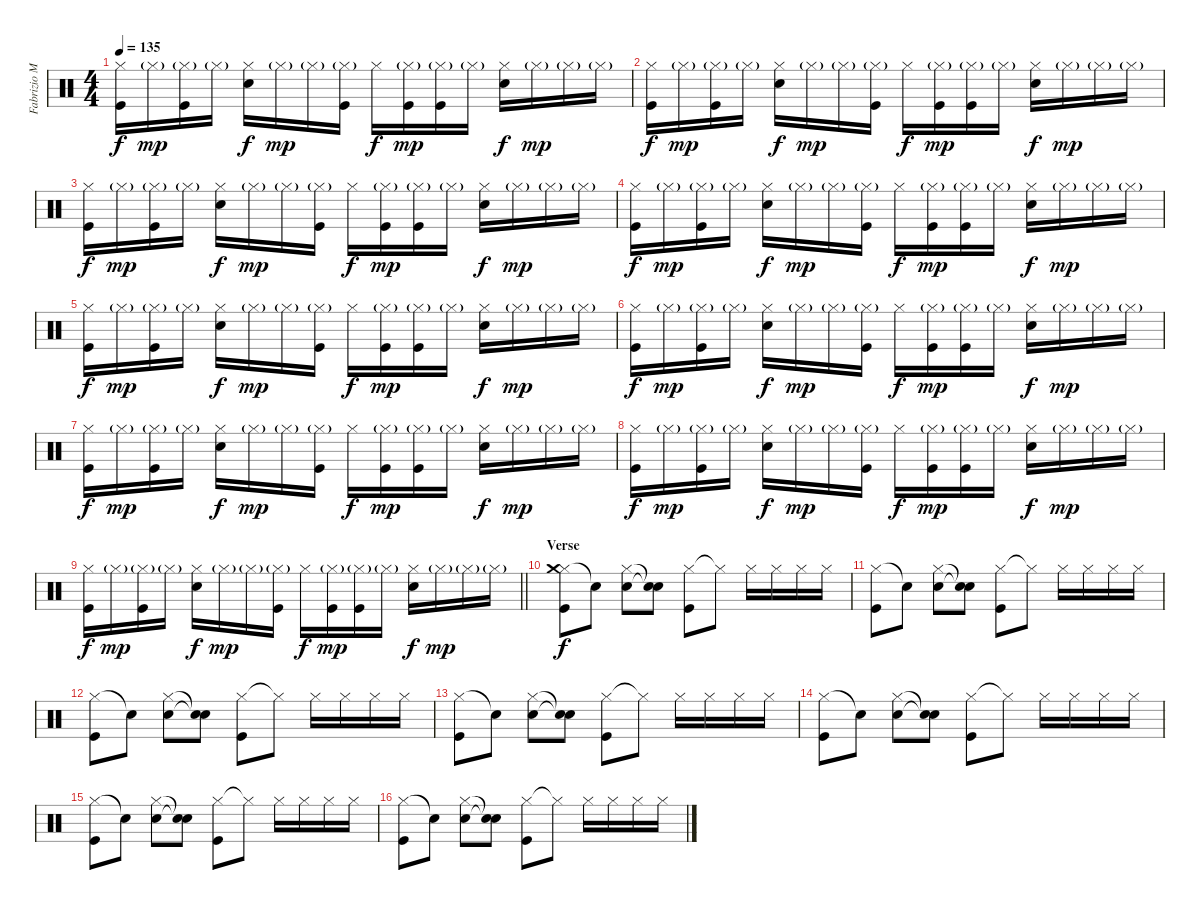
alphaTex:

\track ("Fabrizio Moretti" "Fabrizio M") {instrument percussion}
\staff {score}
\articulation defaults
\ts (4 4)
\tempo 135
\clef neutral
\ks c
("Hi-Hat (closed)" "Kick (hit)").16{dy f} "Hi-Hat (closed)"{g}.16{dy mp} ("Hi-Hat (closed)"{g} "Kick (hit)").16 "Hi-Hat (closed)"{g}.16 ("Hi-Hat (closed)" "Electric Snare (hit)").16{dy f} "Hi-Hat (closed)"{g}.16{dy mp} "Hi-Hat (closed)"{g}.16 ("Hi-Hat (closed)"{g} "Kick (hit)").16 "Hi-Hat (closed)".16{dy f} ("Hi-Hat (closed)"{g} "Kick (hit)").16{dy mp} ("Hi-Hat (closed)"{g} "Kick (hit)").16 "Hi-Hat (closed)"{g}.16 ("Hi-Hat (closed)" "Electric Snare (hit)").16{dy f} "Hi-Hat (closed)"{g}.16{dy mp} "Hi-Hat (closed)"{g}.16 "Hi-Hat (closed)"{g}.16 |
("Hi-Hat (closed)" "Kick (hit)").16{dy f} "Hi-Hat (closed)"{g}.16{dy mp} ("Hi-Hat (closed)"{g} "Kick (hit)").16 "Hi-Hat (closed)"{g}.16 ("Hi-Hat (closed)" "Electric Snare (hit)").16{dy f} "Hi-Hat (closed)"{g}.16{dy mp} "Hi-Hat (closed)"{g}.16 ("Hi-Hat (closed)"{g} "Kick (hit)").16 "Hi-Hat (closed)".16{dy f} ("Hi-Hat (closed)"{g} "Kick (hit)").16{dy mp} ("Hi-Hat (closed)"{g} "Kick (hit)").16 "Hi-Hat (closed)"{g}.16 ("Hi-Hat (closed)" "Electric Snare (hit)").16{dy f} "Hi-Hat (closed)"{g}.16{dy mp} "Hi-Hat (closed)"{g}.16 "Hi-Hat (closed)"{g}.16 |
("Hi-Hat (closed)" "Kick (hit)").16{dy f} "Hi-Hat (closed)"{g}.16{dy mp} ("Hi-Hat (closed)"{g} "Kick (hit)").16 "Hi-Hat (closed)"{g}.16 ("Hi-Hat (closed)" "Electric Snare (hit)").16{dy f} "Hi-Hat (closed)"{g}.16{dy mp} "Hi-Hat (closed)"{g}.16 ("Hi-Hat (closed)"{g} "Kick (hit)").16 "Hi-Hat (closed)".16{dy f} ("Hi-Hat (closed)"{g} "Kick (hit)").16{dy mp} ("Hi-Hat (closed)"{g} "Kick (hit)").16 "Hi-Hat (closed)"{g}.16 ("Hi-Hat (closed)" "Electric Snare (hit)").16{dy f} "Hi-Hat (closed)"{g}.16{dy mp} "Hi-Hat (closed)"{g}.16 "Hi-Hat (closed)"{g}.16 |
("Hi-Hat (closed)" "Kick (hit)").16{dy f} "Hi-Hat (closed)"{g}.16{dy mp} ("Hi-Hat (closed)"{g} "Kick (hit)").16 "Hi-Hat (closed)"{g}.16 ("Hi-Hat (closed)" "Electric Snare (hit)").16{dy f} "Hi-Hat (closed)"{g}.16{dy mp} "Hi-Hat (closed)"{g}.16 ("Hi-Hat (closed)"{g} "Kick (hit)").16 "Hi-Hat (closed)".16{dy f} ("Hi-Hat (closed)"{g} "Kick (hit)").16{dy mp} ("Hi-Hat (closed)"{g} "Kick (hit)").16 "Hi-Hat (closed)"{g}.16 ("Hi-Hat (closed)" "Electric Snare (hit)").16{dy f} "Hi-Hat (closed)"{g}.16{dy mp} "Hi-Hat (closed)"{g}.16 "Hi-Hat (closed)"{g}.16 |
("Hi-Hat (closed)" "Kick (hit)").16{dy f} "Hi-Hat (closed)"{g}.16{dy mp} ("Hi-Hat (closed)"{g} "Kick (hit)").16 "Hi-Hat (closed)"{g}.16 ("Hi-Hat (closed)" "Electric Snare (hit)").16{dy f} "Hi-Hat (closed)"{g}.16{dy mp} "Hi-Hat (closed)"{g}.16 ("Hi-Hat (closed)"{g} "Kick (hit)").16 "Hi-Hat (closed)".16{dy f} ("Hi-Hat (closed)"{g} "Kick (hit)").16{dy mp} ("Hi-Hat (closed)"{g} "Kick (hit)").16 "Hi-Hat (closed)"{g}.16 ("Hi-Hat (closed)" "Electric Snare (hit)").16{dy f} "Hi-Hat (closed)"{g}.16{dy mp} "Hi-Hat (closed)"{g}.16 "Hi-Hat (closed)"{g}.16 |
("Hi-Hat (closed)" "Kick (hit)").16{dy f} "Hi-Hat (closed)"{g}.16{dy mp} ("Hi-Hat (closed)"{g} "Kick (hit)").16 "Hi-Hat (closed)"{g}.16 ("Hi-Hat (closed)" "Electric Snare (hit)").16{dy f} "Hi-Hat (closed)"{g}.16{dy mp} "Hi-Hat (closed)"{g}.16 ("Hi-Hat (closed)"{g} "Kick (hit)").16 "Hi-Hat (closed)".16{dy f} ("Hi-Hat (closed)"{g} "Kick (hit)").16{dy mp} ("Hi-Hat (closed)"{g} "Kick (hit)").16 "Hi-Hat (closed)"{g}.16 ("Hi-Hat (closed)" "Electric Snare (hit)").16{dy f} "Hi-Hat (closed)"{g}.16{dy mp} "Hi-Hat (closed)"{g}.16 "Hi-Hat (closed)"{g}.16 |
("Hi-Hat (closed)" "Kick (hit)").16{dy f} "Hi-Hat (closed)"{g}.16{dy mp} ("Hi-Hat (closed)"{g} "Kick (hit)").16 "Hi-Hat (closed)"{g}.16 ("Hi-Hat (closed)" "Electric Snare (hit)").16{dy f} "Hi-Hat (closed)"{g}.16{dy mp} "Hi-Hat (closed)"{g}.16 ("Hi-Hat (closed)"{g} "Kick (hit)").16 "Hi-Hat (closed)".16{dy f} ("Hi-Hat (closed)"{g} "Kick (hit)").16{dy mp} ("Hi-Hat (closed)"{g} "Kick (hit)").16 "Hi-Hat (closed)"{g}.16 ("Hi-Hat (closed)" "Electric Snare (hit)").16{dy f} "Hi-Hat (closed)"{g}.16{dy mp} "Hi-Hat (closed)"{g}.16 "Hi-Hat (closed)"{g}.16 |
("Hi-Hat (closed)" "Kick (hit)").16{dy f} "Hi-Hat (closed)"{g}.16{dy mp} ("Hi-Hat (closed)"{g} "Kick (hit)").16 "Hi-Hat (closed)"{g}.16 ("Hi-Hat (closed)" "Electric Snare (hit)").16{dy f} "Hi-Hat (closed)"{g}.16{dy mp} "Hi-Hat (closed)"{g}.16 ("Hi-Hat (closed)"{g} "Kick (hit)").16 "Hi-Hat (closed)".16{dy f} ("Hi-Hat (closed)"{g} "Kick (hit)").16{dy mp} ("Hi-Hat (closed)"{g} "Kick (hit)").16 "Hi-Hat (closed)"{g}.16 ("Hi-Hat (closed)" "Electric Snare (hit)").16{dy f} "Hi-Hat (closed)"{g}.16{dy mp} "Hi-Hat (closed)"{g}.16 "Hi-Hat (closed)"{g}.16 |
\barLineRight lightlight
("Hi-Hat (closed)" "Kick (hit)").16{dy f} "Hi-Hat (closed)"{g}.16{dy mp} ("Hi-Hat (closed)"{g} "Kick (hit)").16 "Hi-Hat (closed)"{g}.16 ("Hi-Hat (closed)" "Electric Snare (hit)").16{dy f} "Hi-Hat (closed)"{g}.16{dy mp} "Hi-Hat (closed)"{g}.16 ("Hi-Hat (closed)"{g} "Kick (hit)").16 "Hi-Hat (closed)".16{dy f} ("Hi-Hat (closed)"{g} "Kick (hit)").16{dy mp} ("Hi-Hat (closed)"{g} "Kick (hit)").16 "Hi-Hat (closed)"{g}.16 ("Hi-Hat (closed)" "Electric Snare (hit)").16{dy f} "Hi-Hat (closed)"{g}.16{dy mp} "Hi-Hat (closed)"{g}.16 "Hi-Hat (closed)"{g}.16 |
\section ("" "Verse")
("Hi-Hat (closed)" "Crash medium (hit)" "Kick (hit)").8{dy f} "Snare (hit)"{t}.8 ("Hi-Hat (closed)" "Electric Snare (hit)").8 ("Snare (hit)"{t} "Snare (hit)"{t}).8 ("Hi-Hat (closed)" "Kick (hit)").8 "Hi-Hat (closed)"{t}.8 "Hi-Hat (closed)".16 "Hi-Hat (closed)".16 "Hi-Hat (closed)".16 "Hi-Hat (closed)".16 |
("Hi-Hat (closed)" "Kick (hit)").8 "Snare (hit)"{t}.8 ("Hi-Hat (closed)" "Electric Snare (hit)").8 ("Snare (hit)"{t} "Snare (hit)"{t}).8 ("Hi-Hat (closed)" "Kick (hit)").8 "Hi-Hat (closed)"{t}.8 "Hi-Hat (closed)".16 "Hi-Hat (closed)".16 "Hi-Hat (closed)".16 "Hi-Hat (closed)".16 |
("Hi-Hat (closed)" "Kick (hit)").8 "Snare (hit)"{t}.8 ("Hi-Hat (closed)" "Electric Snare (hit)").8 ("Snare (hit)"{t} "Snare (hit)"{t}).8 ("Hi-Hat (closed)" "Kick (hit)").8 "Hi-Hat (closed)"{t}.8 "Hi-Hat (closed)".16 "Hi-Hat (closed)".16 "Hi-Hat (closed)".16 "Hi-Hat (closed)".16 |
("Hi-Hat (closed)" "Kick (hit)").8 "Snare (hit)"{t}.8 ("Hi-Hat (closed)" "Electric Snare (hit)").8 ("Snare (hit)"{t} "Snare (hit)"{t}).8 ("Hi-Hat (closed)" "Kick (hit)").8 "Hi-Hat (closed)"{t}.8 "Hi-Hat (closed)".16 "Hi-Hat (closed)".16 "Hi-Hat (closed)".16 "Hi-Hat (closed)".16 |
("Hi-Hat (closed)" "Kick (hit)").8 "Snare (hit)"{t}.8 ("Hi-Hat (closed)" "Electric Snare (hit)").8 ("Snare (hit)"{t} "Snare (hit)"{t}).8 ("Hi-Hat (closed)" "Kick (hit)").8 "Hi-Hat (closed)"{t}.8 "Hi-Hat (closed)".16 "Hi-Hat (closed)".16 "Hi-Hat (closed)".16 "Hi-Hat (closed)".16 |
("Hi-Hat (closed)" "Kick (hit)").8 "Snare (hit)"{t}.8 ("Hi-Hat (closed)" "Electric Snare (hit)").8 ("Snare (hit)"{t} "Snare (hit)"{t}).8 ("Hi-Hat (closed)" "Kick (hit)").8 "Hi-Hat (closed)"{t}.8 "Hi-Hat (closed)".16 "Hi-Hat (closed)".16 "Hi-Hat (closed)".16 "Hi-Hat (closed)".16 |
("Hi-Hat (closed)" "Kick (hit)").8 "Snare (hit)"{t}.8 ("Hi-Hat (closed)" "Electric Snare (hit)").8 ("Snare (hit)"{t} "Snare (hit)"{t}).8 ("Hi-Hat (closed)" "Kick (hit)").8 "Hi-Hat (closed)"{t}.8 "Hi-Hat (closed)".16 "Hi-Hat (closed)".16 "Hi-Hat (closed)".16 "Hi-Hat (closed)".16
